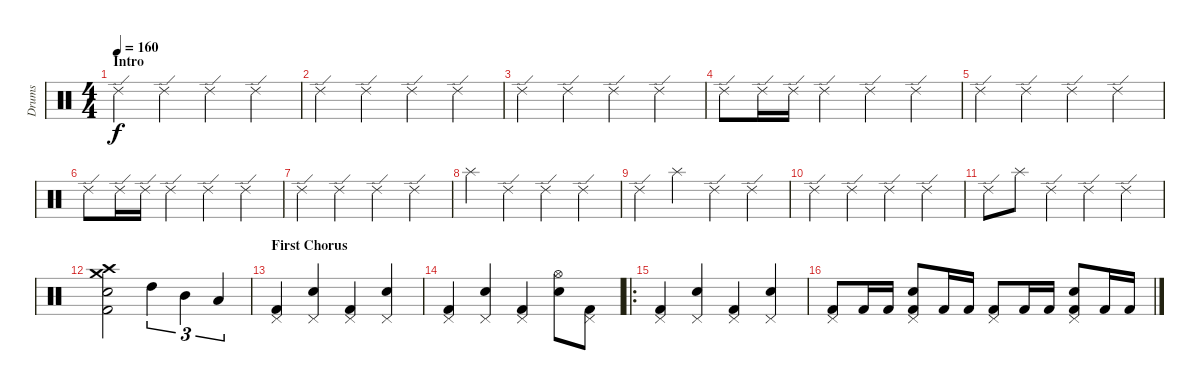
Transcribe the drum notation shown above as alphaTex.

\track ("Drums" "Drums") {instrument percussion}
\staff {score}
\articulation defaults
\ts (4 4)
\section ("" "Intro")
\tempo 160
\clef neutral
\ks c "Ride (edge) 2".4{dy f} "Ride (edge) 2".4 "Ride (edge) 2".4 "Ride (edge) 2".4
|
"Ride (edge) 2".4 "Ride (edge) 2".4 "Ride (edge) 2".4 "Ride (edge) 2".4 |
"Ride (edge) 2".4 "Ride (edge) 2".4 "Ride (edge) 2".4 "Ride (edge) 2".4 |
"Ride (edge) 2".8 "Ride (edge) 2".16 "Ride (edge) 2".16 "Ride (edge) 2".4 "Ride (edge) 2".4 "Ride (edge) 2".4 |
"Ride (edge) 2".4 "Ride (edge) 2".4 "Ride (edge) 2".4 "Ride (edge) 2".4 |
"Ride (edge) 2".8 "Ride (edge) 2".16 "Ride (edge) 2".16 "Ride (edge) 2".4 "Ride (edge) 2".4 "Ride (edge) 2".4 |
"Ride (edge) 2".4 "Ride (edge) 2".4 "Ride (edge) 2".4 "Ride (edge) 2".4 |
"Splash (hit)".4 "Ride (edge) 2".4 "Ride (edge) 2".4 "Ride (edge) 2".4 |
"Ride (edge) 2".4 "Splash (hit)".4 "Ride (edge) 2".4 "Ride (edge) 2".4 |
"Ride (edge) 2".4 "Ride (edge) 2".4 "Ride (edge) 2".4 "Ride (edge) 2".4 |
"Ride (edge) 2".8 "Splash (hit)".8 "Ride (edge) 2".4 "Ride (edge) 2".4 "Ride (edge) 2".4 |
("Crash high (hit)" "Crash medium (hit)" "Electric Snare (hit)" "Kick (hit) 2").2 "High Tom (hit)".4{tu (3 2)} "Mid Tom (hit)".4{tu (3 2)} "Low Tom (hit)".4{tu (3 2)} |
\section ("" "First Chorus")
("Pedal Hi-Hat (hit)" "Kick (hit) 2").4 ("Pedal Hi-Hat (hit)" "Electric Snare (hit)").4 ("Pedal Hi-Hat (hit)" "Kick (hit) 2").4 ("Pedal Hi-Hat (hit)" "Electric Snare (hit)").4 |
("Pedal Hi-Hat (hit)" "Kick (hit) 2").4 ("Pedal Hi-Hat (hit)" "Electric Snare (hit)").4 ("Pedal Hi-Hat (hit)" "Kick (hit) 2").4 ("Hi-Hat (open)" "Electric Snare (hit)").8 ("Pedal Hi-Hat (hit)" "Kick (hit) 2").8 |
\ro
("Pedal Hi-Hat (hit)" "Kick (hit) 2").4 ("Pedal Hi-Hat (hit)" "Electric Snare (hit)").4 ("Pedal Hi-Hat (hit)" "Kick (hit) 2").4 ("Pedal Hi-Hat (hit)" "Electric Snare (hit)").4 |
("Pedal Hi-Hat (hit)" "Kick (hit) 2").8 "Kick (hit) 2".16 "Kick (hit) 2".16 ("Pedal Hi-Hat (hit)" "Electric Snare (hit)" "Kick (hit) 2").8 "Kick (hit) 2".16 "Kick (hit) 2".16 ("Pedal Hi-Hat (hit)" "Kick (hit) 2").8 "Kick (hit) 2".16 "Kick (hit) 2".16 ("Pedal Hi-Hat (hit)" "Electric Snare (hit)" "Kick (hit) 2").8 "Kick (hit) 2".16 "Kick (hit) 2".16
